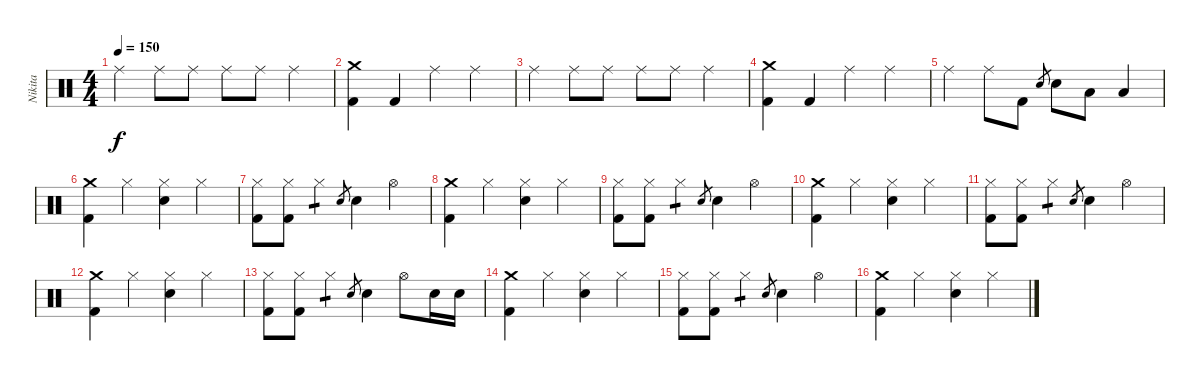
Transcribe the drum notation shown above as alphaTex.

\track ("Nikita" "Nikita") {instrument percussion}
\staff {score}
\articulation defaults
\ts (4 4)
\tempo 150
\clef neutral
\ks c "Ride (middle)".4{dy f} "Ride (middle)".8 "Ride (middle)".8 "Ride (middle)".8 "Ride (middle)".8 "Ride (middle)".4
|
("Crash medium (hit)" "Kick (hit) 2").4 "Kick (hit) 2".4 "Ride (middle)".4 "Ride (middle)".4 |
"Ride (middle)".4 "Ride (middle)".8 "Ride (middle)".8 "Ride (middle)".8 "Ride (middle)".8 "Ride (middle)".4 |
("Crash medium (hit)" "Kick (hit) 2").4 "Kick (hit) 2".4 "Ride (middle)".4 "Ride (middle)".4 |
"Ride (middle)".4 "Ride (middle)".8 "Kick (hit) 2".8 "Electric Snare (hit)".8{gr} "Electric Snare (hit)".8 "Low Tom (hit)".8 "Low Floor Tom (hit)".4 |
("Crash medium (hit)" "Kick (hit) 2").4 "Hi-Hat (closed)".4 ("Hi-Hat (closed)" "Electric Snare (hit)").4 "Hi-Hat (closed)".4 |
("Hi-Hat (closed)" "Kick (hit) 2").8 ("Hi-Hat (closed)" "Kick (hit) 2").8 "Hi-Hat (closed)".4{tp 1} "Electric Snare (hit)".8{gr} "Electric Snare (hit)".4 "Hi-Hat (open)".4 |
("Crash medium (hit)" "Kick (hit) 2").4 "Hi-Hat (closed)".4 ("Hi-Hat (closed)" "Electric Snare (hit)").4 "Hi-Hat (closed)".4 |
("Hi-Hat (closed)" "Kick (hit) 2").8 ("Hi-Hat (closed)" "Kick (hit) 2").8 "Hi-Hat (closed)".4{tp 1} "Electric Snare (hit)".8{gr} "Electric Snare (hit)".4 "Hi-Hat (open)".4 |
("Crash medium (hit)" "Kick (hit) 2").4 "Hi-Hat (closed)".4 ("Hi-Hat (closed)" "Electric Snare (hit)").4 "Hi-Hat (closed)".4 |
("Hi-Hat (closed)" "Kick (hit) 2").8 ("Hi-Hat (closed)" "Kick (hit) 2").8 "Hi-Hat (closed)".4{tp 1} "Electric Snare (hit)".8{gr} "Electric Snare (hit)".4 "Hi-Hat (open)".4 |
("Crash medium (hit)" "Kick (hit) 2").4 "Hi-Hat (closed)".4 ("Hi-Hat (closed)" "Electric Snare (hit)").4 "Hi-Hat (closed)".4 |
("Hi-Hat (closed)" "Kick (hit) 2").8 ("Hi-Hat (closed)" "Kick (hit) 2").8 "Hi-Hat (closed)".4{tp 1} "Electric Snare (hit)".8{gr} "Electric Snare (hit)".4 "Hi-Hat (open)".8 "Electric Snare (hit)".16 "Electric Snare (hit)".16 |
("Crash medium (hit)" "Kick (hit) 2").4 "Hi-Hat (closed)".4 ("Hi-Hat (closed)" "Electric Snare (hit)").4 "Hi-Hat (closed)".4 |
("Hi-Hat (closed)" "Kick (hit) 2").8 ("Hi-Hat (closed)" "Kick (hit) 2").8 "Hi-Hat (closed)".4{tp 1} "Electric Snare (hit)".8{gr} "Electric Snare (hit)".4 "Hi-Hat (open)".4 |
("Crash medium (hit)" "Kick (hit) 2").4 "Hi-Hat (closed)".4 ("Hi-Hat (closed)" "Electric Snare (hit)").4 "Hi-Hat (closed)".4
